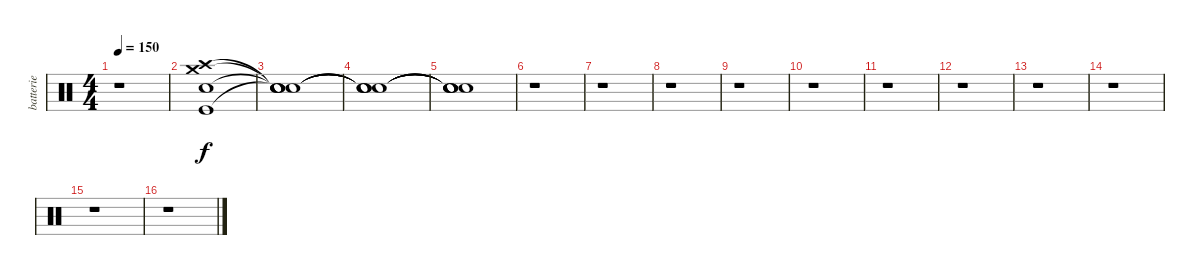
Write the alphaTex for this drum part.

\track ("batterie" "batterie") {instrument percussion}
\staff {score}
\articulation defaults
\ts (4 4)
\tempo 150
\clef neutral
\ks c
r.1{dy f} |
("Crash high (hit)" "Crash medium (hit)" "Snare (hit) 2" "Kick (hit)").1 |
("Snare (hit)"{t} "Snare (hit)"{t} "Snare (hit)"{t} "Snare (hit)"{t}).1 |
("Snare (hit)"{t} "Snare (hit)"{t} "Snare (hit)"{t} "Snare (hit)"{t}).1 |
("Snare (hit)"{t} "Snare (hit)"{t} "Snare (hit)"{t} "Snare (hit)"{t}).1 |
r.1 |
r.1 |
r.1 |
r.1 |
r.1 |
r.1 |
r.1 |
r.1 |
r.1 |
r.1 |
r.1
